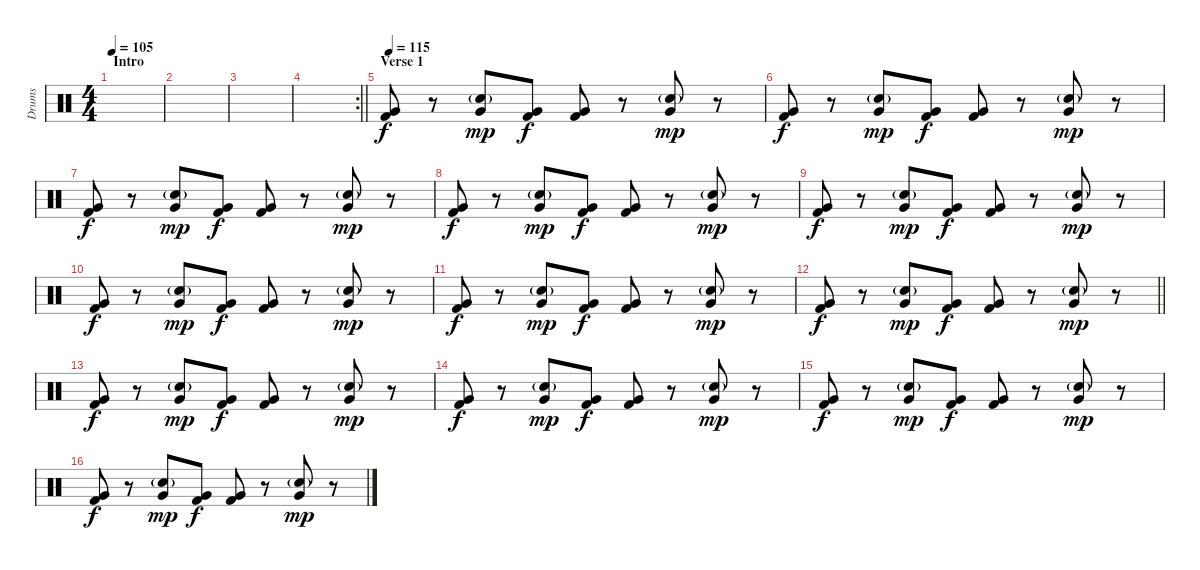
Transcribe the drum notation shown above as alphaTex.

\track ("Drums" "Drums") {instrument percussion}
\staff {score}
\articulation defaults
\ts (4 4)
\section ("" "Intro")
\tempo 105
\clef neutral
\ks c
|
|
|
\rc 2
\barLineRight lightlight
|
\section ("" "Verse 1")
\tempo 115
("Very Low Tom (hit)" "Kick (hit) 2").8 r.8 ("Snare (hit) 2"{g} "Very Low Tom (hit)").8{dy mp} ("Very Low Tom (hit)" "Kick (hit) 2").8{dy f} ("Very Low Tom (hit)" "Kick (hit) 2").8 r.8 ("Snare (hit) 2"{g} "Very Low Tom (hit)").8{dy mp} r.8 |
("Very Low Tom (hit)" "Kick (hit) 2").8{dy f} r.8 ("Snare (hit) 2"{g} "Very Low Tom (hit)").8{dy mp} ("Very Low Tom (hit)" "Kick (hit) 2").8{dy f} ("Very Low Tom (hit)" "Kick (hit) 2").8 r.8 ("Snare (hit) 2"{g} "Very Low Tom (hit)").8{dy mp} r.8 |
("Very Low Tom (hit)" "Kick (hit) 2").8{dy f} r.8 ("Snare (hit) 2"{g} "Very Low Tom (hit)").8{dy mp} ("Very Low Tom (hit)" "Kick (hit) 2").8{dy f} ("Very Low Tom (hit)" "Kick (hit) 2").8 r.8 ("Snare (hit) 2"{g} "Very Low Tom (hit)").8{dy mp} r.8 |
("Very Low Tom (hit)" "Kick (hit) 2").8{dy f} r.8 ("Snare (hit) 2"{g} "Very Low Tom (hit)").8{dy mp} ("Very Low Tom (hit)" "Kick (hit) 2").8{dy f} ("Very Low Tom (hit)" "Kick (hit) 2").8 r.8 ("Snare (hit) 2"{g} "Very Low Tom (hit)").8{dy mp} r.8 |
("Very Low Tom (hit)" "Kick (hit) 2").8{dy f} r.8 ("Snare (hit) 2"{g} "Very Low Tom (hit)").8{dy mp} ("Very Low Tom (hit)" "Kick (hit) 2").8{dy f} ("Very Low Tom (hit)" "Kick (hit) 2").8 r.8 ("Snare (hit) 2"{g} "Very Low Tom (hit)").8{dy mp} r.8 |
("Very Low Tom (hit)" "Kick (hit) 2").8{dy f} r.8 ("Snare (hit) 2"{g} "Very Low Tom (hit)").8{dy mp} ("Very Low Tom (hit)" "Kick (hit) 2").8{dy f} ("Very Low Tom (hit)" "Kick (hit) 2").8 r.8 ("Snare (hit) 2"{g} "Very Low Tom (hit)").8{dy mp} r.8 |
("Very Low Tom (hit)" "Kick (hit) 2").8{dy f} r.8 ("Snare (hit) 2"{g} "Very Low Tom (hit)").8{dy mp} ("Very Low Tom (hit)" "Kick (hit) 2").8{dy f} ("Very Low Tom (hit)" "Kick (hit) 2").8 r.8 ("Snare (hit) 2"{g} "Very Low Tom (hit)").8{dy mp} r.8 |
\barLineRight lightlight
("Very Low Tom (hit)" "Kick (hit) 2").8{dy f} r.8 ("Snare (hit) 2"{g} "Very Low Tom (hit)").8{dy mp} ("Very Low Tom (hit)" "Kick (hit) 2").8{dy f} ("Very Low Tom (hit)" "Kick (hit) 2").8 r.8 ("Snare (hit) 2"{g} "Very Low Tom (hit)").8{dy mp} r.8 |
("Very Low Tom (hit)" "Kick (hit) 2").8{dy f} r.8 ("Snare (hit) 2"{g} "Very Low Tom (hit)").8{dy mp} ("Very Low Tom (hit)" "Kick (hit) 2").8{dy f} ("Very Low Tom (hit)" "Kick (hit) 2").8 r.8 ("Snare (hit) 2"{g} "Very Low Tom (hit)").8{dy mp} r.8 |
("Very Low Tom (hit)" "Kick (hit) 2").8{dy f} r.8 ("Snare (hit) 2"{g} "Very Low Tom (hit)").8{dy mp} ("Very Low Tom (hit)" "Kick (hit) 2").8{dy f} ("Very Low Tom (hit)" "Kick (hit) 2").8 r.8 ("Snare (hit) 2"{g} "Very Low Tom (hit)").8{dy mp} r.8 |
("Very Low Tom (hit)" "Kick (hit) 2").8{dy f} r.8 ("Snare (hit) 2"{g} "Very Low Tom (hit)").8{dy mp} ("Very Low Tom (hit)" "Kick (hit) 2").8{dy f} ("Very Low Tom (hit)" "Kick (hit) 2").8 r.8 ("Snare (hit) 2"{g} "Very Low Tom (hit)").8{dy mp} r.8 |
("Very Low Tom (hit)" "Kick (hit) 2").8{dy f} r.8 ("Snare (hit) 2"{g} "Very Low Tom (hit)").8{dy mp} ("Very Low Tom (hit)" "Kick (hit) 2").8{dy f} ("Very Low Tom (hit)" "Kick (hit) 2").8 r.8 ("Snare (hit) 2"{g} "Very Low Tom (hit)").8{dy mp} r.8
